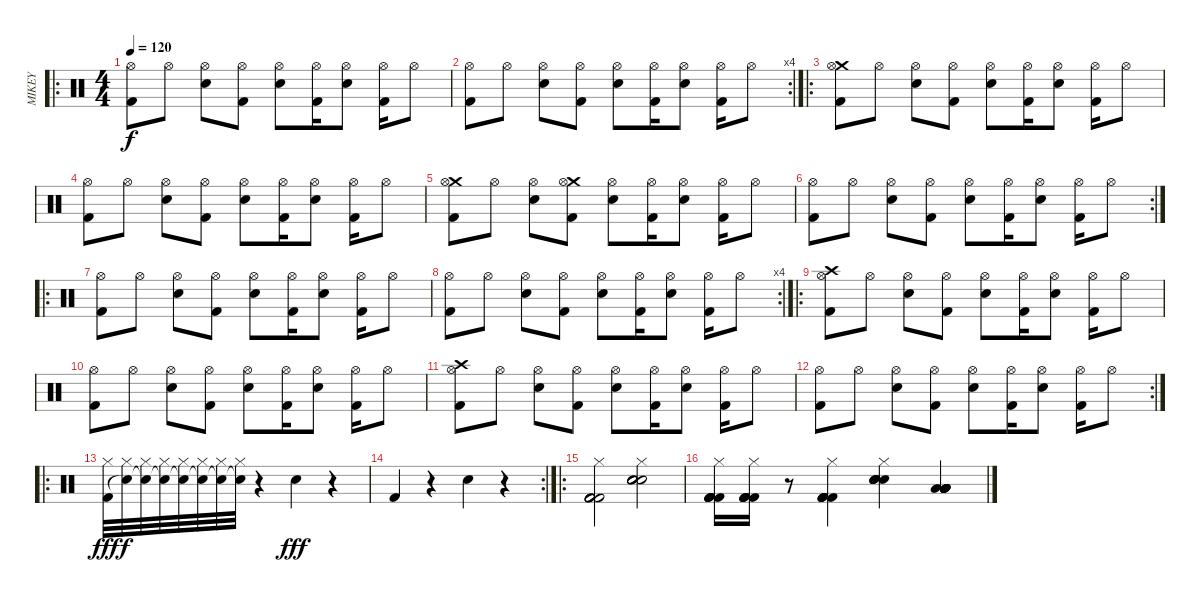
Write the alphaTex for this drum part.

\track ("MIKEY" "MIKEY") {instrument percussion}
\staff {score}
\articulation defaults
\ro
\ts (4 4)
\tempo 120
\clef neutral
\ks c
("Kick (hit) 2" "Hi-Hat (open)").8{dy f} "Hi-Hat (open)".8 ("Snare (hit) 2" "Hi-Hat (open)").8 ("Kick (hit) 2" "Hi-Hat (open)").8 ("Snare (hit) 2" "Hi-Hat (open)").8 ("Kick (hit) 2" "Hi-Hat (open)").16 ("Snare (hit) 2" "Hi-Hat (open)").8 ("Kick (hit) 2" "Hi-Hat (open)").16 "Hi-Hat (open)".8 |
\rc 4
("Kick (hit) 2" "Hi-Hat (open)").8 "Hi-Hat (open)".8 ("Snare (hit) 2" "Hi-Hat (open)").8 ("Kick (hit) 2" "Hi-Hat (open)").8 ("Snare (hit) 2" "Hi-Hat (open)").8 ("Kick (hit) 2" "Hi-Hat (open)").16 ("Snare (hit) 2" "Hi-Hat (open)").8 ("Kick (hit) 2" "Hi-Hat (open)").16 "Hi-Hat (open)".8 |
\ro
("Crash medium (hit)" "Kick (hit) 2" "Hi-Hat (open)").8 "Hi-Hat (open)".8 ("Snare (hit) 2" "Hi-Hat (open)").8 ("Kick (hit) 2" "Hi-Hat (open)").8 ("Snare (hit) 2" "Hi-Hat (open)").8 ("Kick (hit) 2" "Hi-Hat (open)").16 ("Snare (hit) 2" "Hi-Hat (open)").8 ("Kick (hit) 2" "Hi-Hat (open)").16 "Hi-Hat (open)".8 |
("Kick (hit) 2" "Hi-Hat (open)").8 "Hi-Hat (open)".8 ("Snare (hit) 2" "Hi-Hat (open)").8 ("Kick (hit) 2" "Hi-Hat (open)").8 ("Snare (hit) 2" "Hi-Hat (open)").8 ("Kick (hit) 2" "Hi-Hat (open)").16 ("Snare (hit) 2" "Hi-Hat (open)").8 ("Kick (hit) 2" "Hi-Hat (open)").16 "Hi-Hat (open)".8 |
("Crash medium (hit)" "Kick (hit) 2" "Hi-Hat (open)").8 "Hi-Hat (open)".8 ("Snare (hit) 2" "Hi-Hat (open)").8 ("Crash medium (hit)" "Kick (hit) 2" "Hi-Hat (open)").8 ("Snare (hit) 2" "Hi-Hat (open)").8 ("Kick (hit) 2" "Hi-Hat (open)").16 ("Snare (hit) 2" "Hi-Hat (open)").8 ("Kick (hit) 2" "Hi-Hat (open)").16 "Hi-Hat (open)".8 |
\rc 2
("Kick (hit) 2" "Hi-Hat (open)").8 "Hi-Hat (open)".8 ("Snare (hit) 2" "Hi-Hat (open)").8 ("Kick (hit) 2" "Hi-Hat (open)").8 ("Snare (hit) 2" "Hi-Hat (open)").8 ("Kick (hit) 2" "Hi-Hat (open)").16 ("Snare (hit) 2" "Hi-Hat (open)").8 ("Kick (hit) 2" "Hi-Hat (open)").16 "Hi-Hat (open)".8 |
\ro
("Kick (hit) 2" "Hi-Hat (open)").8 "Hi-Hat (open)".8 ("Snare (hit) 2" "Hi-Hat (open)").8 ("Kick (hit) 2" "Hi-Hat (open)").8 ("Snare (hit) 2" "Hi-Hat (open)").8 ("Kick (hit) 2" "Hi-Hat (open)").16 ("Snare (hit) 2" "Hi-Hat (open)").8 ("Kick (hit) 2" "Hi-Hat (open)").16 "Hi-Hat (open)".8 |
\rc 4
("Kick (hit) 2" "Hi-Hat (open)").8 "Hi-Hat (open)".8 ("Snare (hit) 2" "Hi-Hat (open)").8 ("Kick (hit) 2" "Hi-Hat (open)").8 ("Snare (hit) 2" "Hi-Hat (open)").8 ("Kick (hit) 2" "Hi-Hat (open)").16 ("Snare (hit) 2" "Hi-Hat (open)").8 ("Kick (hit) 2" "Hi-Hat (open)").16 "Hi-Hat (open)".8 |
\ro
("Crash high (hit)" "Kick (hit) 2" "Hi-Hat (open)").8 "Hi-Hat (open)".8 ("Snare (hit) 2" "Hi-Hat (open)").8 ("Kick (hit) 2" "Hi-Hat (open)").8 ("Snare (hit) 2" "Hi-Hat (open)").8 ("Kick (hit) 2" "Hi-Hat (open)").16 ("Snare (hit) 2" "Hi-Hat (open)").8 ("Kick (hit) 2" "Hi-Hat (open)").16 "Hi-Hat (open)".8 |
("Kick (hit) 2" "Hi-Hat (open)").8 "Hi-Hat (open)".8 ("Snare (hit) 2" "Hi-Hat (open)").8 ("Kick (hit) 2" "Hi-Hat (open)").8 ("Snare (hit) 2" "Hi-Hat (open)").8 ("Kick (hit) 2" "Hi-Hat (open)").16 ("Snare (hit) 2" "Hi-Hat (open)").8 ("Kick (hit) 2" "Hi-Hat (open)").16 "Hi-Hat (open)".8 |
("Crash high (hit)" "Kick (hit) 2" "Hi-Hat (open)").8 "Hi-Hat (open)".8 ("Snare (hit) 2" "Hi-Hat (open)").8 ("Kick (hit) 2" "Hi-Hat (open)").8 ("Snare (hit) 2" "Hi-Hat (open)").8 ("Kick (hit) 2" "Hi-Hat (open)").16 ("Snare (hit) 2" "Hi-Hat (open)").8 ("Kick (hit) 2" "Hi-Hat (open)").16 "Hi-Hat (open)".8 |
\rc 2
("Kick (hit) 2" "Hi-Hat (open)").8 "Hi-Hat (open)".8 ("Snare (hit) 2" "Hi-Hat (open)").8 ("Kick (hit) 2" "Hi-Hat (open)").8 ("Snare (hit) 2" "Hi-Hat (open)").8 ("Kick (hit) 2" "Hi-Hat (open)").16 ("Snare (hit) 2" "Hi-Hat (open)").8 ("Kick (hit) 2" "Hi-Hat (open)").16 "Hi-Hat (open)".8 |
\ro
("Kick (hit) 2" "Hi-Hat (closed)").32{dy fff} ("Snare (hit)"{t} "Hi-Hat (closed)").32{dy f} ("Snare (hit)"{t} "Hi-Hat (closed)").32 ("Snare (hit)"{t} "Hi-Hat (closed)").32 ("Snare (hit)"{t} "Hi-Hat (closed)").32 ("Snare (hit)"{t} "Hi-Hat (closed)").32 ("Snare (hit)"{t} "Hi-Hat (closed)").32 ("Snare (hit)"{t} "Hi-Hat (closed)").32 r.4 "Snare (hit) 2".4{dy fff} r.4 |
\rc 2 "Kick (hit) 2".4
r.4 "Snare (hit) 2".4 r.4 |
\ro
("Hi-Hat (closed)" "Kick (hit) 2" "Kick (hit) 2" "Kick (hit) 2" "Kick (hit) 2" "Kick (hit) 2").2 ("Hi-Hat (closed)" "Snare (hit) 2" "Snare (hit) 2" "Snare (hit) 2" "Snare (hit) 2" "Snare (hit) 2").2 |
("Hi-Hat (closed)" "Kick (hit) 2" "Kick (hit) 2" "Kick (hit) 2" "Kick (hit) 2" "Kick (hit) 2").16 ("Hi-Hat (closed)" "Kick (hit) 2" "Kick (hit) 2" "Kick (hit) 2" "Kick (hit) 2" "Kick (hit) 2").16 r.8 ("Hi-Hat (closed)" "Kick (hit) 2" "Kick (hit) 2" "Kick (hit) 2" "Kick (hit) 2" "Kick (hit) 2").4 ("Hi-Hat (closed)" "Snare (hit) 2" "Snare (hit) 2" "Snare (hit) 2" "Snare (hit) 2" "Snare (hit) 2").4 ("Low Tom (hit)" "Low Tom (hit)" "Low Tom (hit)" "Low Tom (hit)" "Low Tom (hit)" "Low Tom (hit)").4
